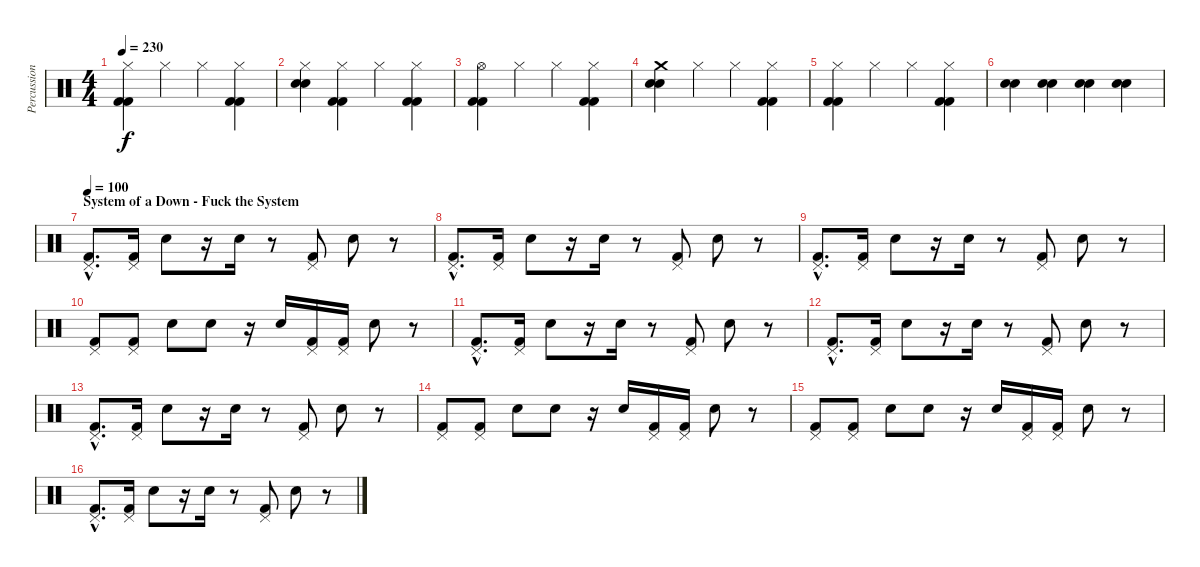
\track ("Percussion" "Percussion") {instrument percussion}
\staff {score}
\articulation defaults
\ts (4 4)
\tempo 230
\clef neutral
\ks c
("Hi-Hat (closed)" "Kick (hit) 2" "Kick (hit) 2").4{dy f} "Hi-Hat (closed)".4 "Hi-Hat (closed)".4 ("Hi-Hat (closed)" "Kick (hit) 2" "Kick (hit) 2").4 |
("Hi-Hat (closed)" "Electric Snare (hit)" "Electric Snare (hit)").4 ("Hi-Hat (closed)" "Kick (hit) 2" "Kick (hit) 2").4 "Hi-Hat (closed)".4 ("Hi-Hat (closed)" "Kick (hit) 2" "Kick (hit) 2").4 |
("Hi-Hat (open)" "Kick (hit) 2" "Kick (hit) 2").4 "Hi-Hat (closed)".4 "Hi-Hat (closed)".4 ("Hi-Hat (closed)" "Kick (hit) 2" "Kick (hit) 2").4 |
("Crash medium (hit)" "Electric Snare (hit)" "Electric Snare (hit)").4 "Hi-Hat (closed)".4 "Hi-Hat (closed)".4 ("Hi-Hat (closed)" "Kick (hit) 2" "Kick (hit) 2").4 |
("Hi-Hat (closed)" "Kick (hit) 2" "Kick (hit) 2").4 "Hi-Hat (closed)".4 "Hi-Hat (closed)".4 ("Hi-Hat (closed)" "Kick (hit) 2" "Kick (hit) 2").4 |
("Electric Snare (hit)" "Electric Snare (hit)").4 ("Electric Snare (hit)" "Electric Snare (hit)").4 ("Electric Snare (hit)" "Electric Snare (hit)").4 ("Electric Snare (hit)" "Electric Snare (hit)").4 |
\section ("" "System of a Down - Fuck the System")
\tempo 100
("Pedal Hi-Hat (hit)"{hac} "Kick (hit) 2"{hac}).8{d} ("Pedal Hi-Hat (hit)" "Kick (hit) 2").16 "Snare (hit) 2".8 r.16 "Snare (hit) 2".16 r.8 ("Pedal Hi-Hat (hit)" "Kick (hit) 2").8 "Snare (hit) 2".8 r.8 |
("Pedal Hi-Hat (hit)"{hac} "Kick (hit) 2"{hac}).8{d} ("Pedal Hi-Hat (hit)" "Kick (hit) 2").16 "Snare (hit) 2".8 r.16 "Snare (hit) 2".16 r.8 ("Pedal Hi-Hat (hit)" "Kick (hit) 2").8 "Snare (hit) 2".8 r.8 |
("Pedal Hi-Hat (hit)"{hac} "Kick (hit) 2"{hac}).8{d} ("Pedal Hi-Hat (hit)" "Kick (hit) 2").16 "Snare (hit) 2".8 r.16 "Snare (hit) 2".16 r.8 ("Pedal Hi-Hat (hit)" "Kick (hit) 2").8 "Snare (hit) 2".8 r.8 |
("Pedal Hi-Hat (hit)" "Kick (hit) 2").8 ("Pedal Hi-Hat (hit)" "Kick (hit) 2").8 "Snare (hit) 2".8 "Snare (hit) 2".8 r.16 "Snare (hit) 2".16 ("Pedal Hi-Hat (hit)" "Kick (hit) 2").16 ("Pedal Hi-Hat (hit)" "Kick (hit) 2").16 "Snare (hit) 2".8 r.8 |
("Pedal Hi-Hat (hit)"{hac} "Kick (hit) 2"{hac}).8{d} ("Pedal Hi-Hat (hit)" "Kick (hit) 2").16 "Snare (hit) 2".8 r.16 "Snare (hit) 2".16 r.8 ("Pedal Hi-Hat (hit)" "Kick (hit) 2").8 "Snare (hit) 2".8 r.8 |
("Pedal Hi-Hat (hit)"{hac} "Kick (hit) 2"{hac}).8{d} ("Pedal Hi-Hat (hit)" "Kick (hit) 2").16 "Snare (hit) 2".8 r.16 "Snare (hit) 2".16 r.8 ("Pedal Hi-Hat (hit)" "Kick (hit) 2").8 "Snare (hit) 2".8 r.8 |
("Pedal Hi-Hat (hit)"{hac} "Kick (hit) 2"{hac}).8{d} ("Pedal Hi-Hat (hit)" "Kick (hit) 2").16 "Snare (hit) 2".8 r.16 "Snare (hit) 2".16 r.8 ("Pedal Hi-Hat (hit)" "Kick (hit) 2").8 "Snare (hit) 2".8 r.8 |
("Pedal Hi-Hat (hit)" "Kick (hit) 2").8 ("Pedal Hi-Hat (hit)" "Kick (hit) 2").8 "Snare (hit) 2".8 "Snare (hit) 2".8 r.16 "Snare (hit) 2".16 ("Pedal Hi-Hat (hit)" "Kick (hit) 2").16 ("Pedal Hi-Hat (hit)" "Kick (hit) 2").16 "Snare (hit) 2".8 r.8 |
("Pedal Hi-Hat (hit)" "Kick (hit) 2").8 ("Pedal Hi-Hat (hit)" "Kick (hit) 2").8 "Snare (hit) 2".8 "Snare (hit) 2".8 r.16 "Snare (hit) 2".16 ("Pedal Hi-Hat (hit)" "Kick (hit) 2").16 ("Pedal Hi-Hat (hit)" "Kick (hit) 2").16 "Snare (hit) 2".8 r.8 |
("Pedal Hi-Hat (hit)"{hac} "Kick (hit) 2"{hac}).8{d} ("Pedal Hi-Hat (hit)" "Kick (hit) 2").16 "Snare (hit) 2".8 r.16 "Snare (hit) 2".16 r.8 ("Pedal Hi-Hat (hit)" "Kick (hit) 2").8 "Snare (hit) 2".8 r.8
